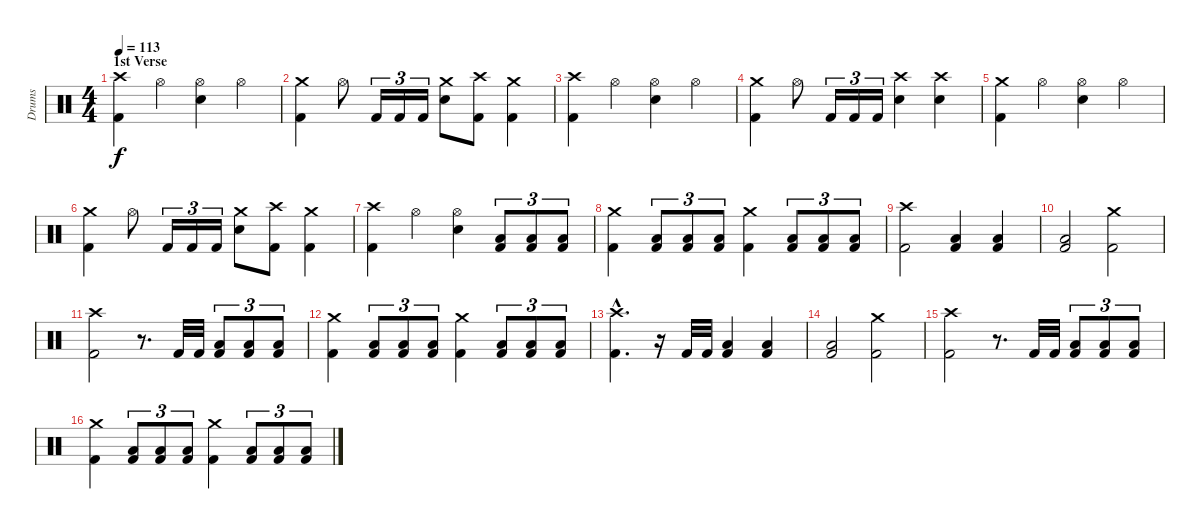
\track ("Drums" "Drums") {instrument percussion}
\staff {score}
\articulation defaults
\ts (4 4)
\section ("" "1st Verse")
\tempo 113
\clef neutral
\ks c
("Kick (hit) 2" "Crash high (hit)").4{dy f} "Hi-Hat (open)".4 ("Electric Snare (hit)" "Hi-Hat (open)").4 "Hi-Hat (open)".4 |
("Kick (hit) 2" "Crash medium (hit)").4 "Hi-Hat (open)".8 "Kick (hit) 2".16{tu (3 2)} "Kick (hit) 2".16{tu (3 2)} "Kick (hit) 2".16{tu (3 2)} ("Electric Snare (hit)" "Crash medium (hit)").8 ("Kick (hit) 2" "Crash high (hit)").8 ("Kick (hit) 2" "Crash medium (hit)").4 |
("Kick (hit) 2" "Crash high (hit)").4 "Hi-Hat (open)".4 ("Electric Snare (hit)" "Hi-Hat (open)").4 "Hi-Hat (open)".4 |
("Kick (hit) 2" "Crash medium (hit)").4 "Hi-Hat (open)".8 "Kick (hit) 2".16{tu (3 2)} "Kick (hit) 2".16{tu (3 2)} "Kick (hit) 2".16{tu (3 2)} ("Electric Snare (hit)" "Crash high (hit)").4 ("Electric Snare (hit)" "Crash high (hit)").4 |
("Kick (hit) 2" "Crash medium (hit)").4 "Hi-Hat (open)".4 ("Electric Snare (hit)" "Hi-Hat (open)").4 "Hi-Hat (open)".4 |
("Kick (hit) 2" "Crash medium (hit)").4 "Hi-Hat (open)".8 "Kick (hit) 2".16{tu (3 2)} "Kick (hit) 2".16{tu (3 2)} "Kick (hit) 2".16{tu (3 2)} ("Electric Snare (hit)" "Crash medium (hit)").8 ("Kick (hit) 2" "Crash high (hit)").8 ("Kick (hit) 2" "Crash medium (hit)").4 |
("Kick (hit) 2" "Crash high (hit)").4 "Hi-Hat (open)".4 ("Electric Snare (hit)" "Hi-Hat (open)").4 ("Kick (hit) 2" "Low Tom (hit)").8{tu (3 2)} ("Kick (hit) 2" "Low Tom (hit)").8{tu (3 2)} ("Kick (hit) 2" "Low Tom (hit)").8{tu (3 2)} |
("Kick (hit) 2" "Crash medium (hit)").4 ("Kick (hit) 2" "Low Tom (hit)").8{tu (3 2)} ("Kick (hit) 2" "Low Tom (hit)").8{tu (3 2)} ("Kick (hit) 2" "Low Tom (hit)").8{tu (3 2)} ("Kick (hit) 2" "Crash medium (hit)").4 ("Kick (hit) 2" "Low Tom (hit)").8{tu (3 2)} ("Kick (hit) 2" "Low Tom (hit)").8{tu (3 2)} ("Kick (hit) 2" "Low Tom (hit)").8{tu (3 2)} |
("Kick (hit) 2" "Crash high (hit)").2 ("Kick (hit) 2" "Low Tom (hit)").4 ("Kick (hit) 2" "Low Tom (hit)").4 |
("Kick (hit) 2" "Low Tom (hit)").2 ("Kick (hit) 2" "Crash medium (hit)").2 |
("Kick (hit) 2" "Crash high (hit)").2 r.8{d} "Kick (hit) 2".32 "Kick (hit) 2".32 ("Kick (hit) 2" "Low Tom (hit)").8{tu (3 2)} ("Kick (hit) 2" "Low Tom (hit)").8{tu (3 2)} ("Kick (hit) 2" "Low Tom (hit)").8{tu (3 2)} |
("Kick (hit) 2" "Crash medium (hit)").4 ("Kick (hit) 2" "Low Tom (hit)").8{tu (3 2)} ("Kick (hit) 2" "Low Tom (hit)").8{tu (3 2)} ("Kick (hit) 2" "Low Tom (hit)").8{tu (3 2)} ("Kick (hit) 2" "Crash medium (hit)").4 ("Kick (hit) 2" "Low Tom (hit)").8{tu (3 2)} ("Kick (hit) 2" "Low Tom (hit)").8{tu (3 2)} ("Kick (hit) 2" "Low Tom (hit)").8{tu (3 2)} |
("Kick (hit) 2"{hac} "Crash high (hit)"{hac}).4{d} r.16 "Kick (hit) 2".32 "Kick (hit) 2".32 ("Kick (hit) 2" "Low Tom (hit)").4 ("Kick (hit) 2" "Low Tom (hit)").4 |
("Kick (hit) 2" "Low Tom (hit)").2 ("Kick (hit) 2" "Crash medium (hit)").2 |
("Kick (hit) 2" "Crash high (hit)").2 r.8{d} "Kick (hit) 2".32 "Kick (hit) 2".32 ("Kick (hit) 2" "Low Tom (hit)").8{tu (3 2)} ("Kick (hit) 2" "Low Tom (hit)").8{tu (3 2)} ("Kick (hit) 2" "Low Tom (hit)").8{tu (3 2)} |
("Kick (hit) 2" "Crash medium (hit)").4 ("Kick (hit) 2" "Low Tom (hit)").8{tu (3 2)} ("Kick (hit) 2" "Low Tom (hit)").8{tu (3 2)} ("Kick (hit) 2" "Low Tom (hit)").8{tu (3 2)} ("Kick (hit) 2" "Crash medium (hit)").4 ("Kick (hit) 2" "Low Tom (hit)").8{tu (3 2)} ("Kick (hit) 2" "Low Tom (hit)").8{tu (3 2)} ("Kick (hit) 2" "Low Tom (hit)").8{tu (3 2)}
